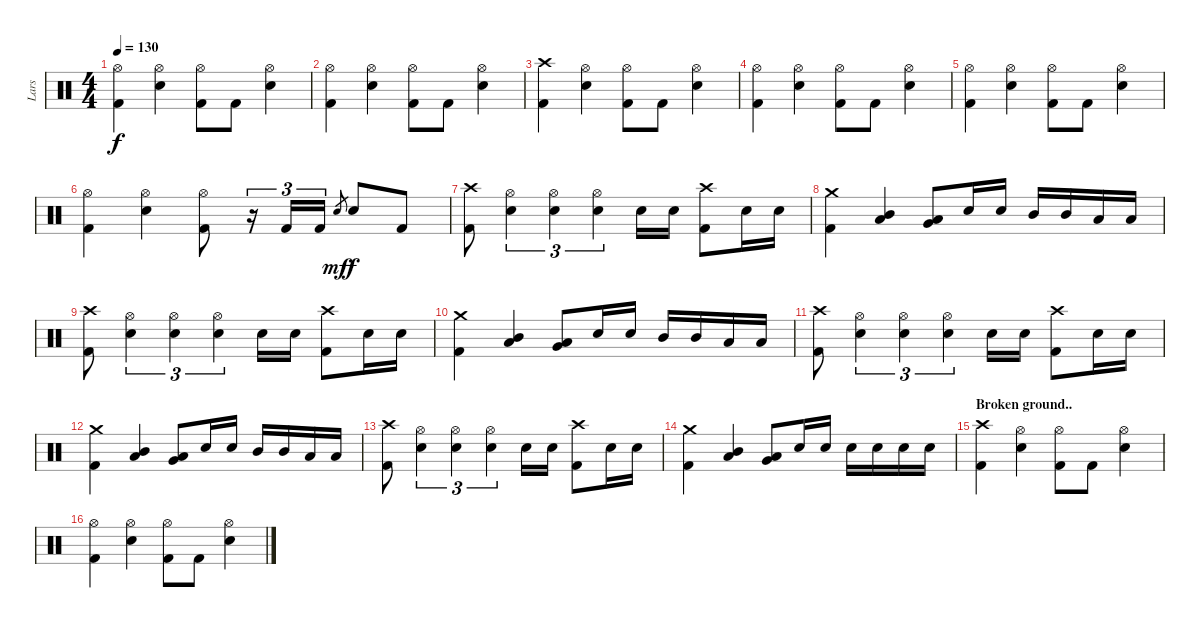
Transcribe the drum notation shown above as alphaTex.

\track ("Lars" "Lars") {instrument percussion}
\staff {score}
\articulation defaults
\ts (4 4)
\tempo 130
\clef neutral
\ks c
("Kick (hit) 2" "Hi-Hat (open)").4{dy f} ("Electric Snare (hit)" "Hi-Hat (open)").4 ("Kick (hit) 2" "Hi-Hat (open)").8 "Kick (hit) 2".8 ("Electric Snare (hit)" "Hi-Hat (open)").4 |
("Kick (hit) 2" "Hi-Hat (open)").4 ("Electric Snare (hit)" "Hi-Hat (open)").4 ("Kick (hit) 2" "Hi-Hat (open)").8 "Kick (hit) 2".8 ("Electric Snare (hit)" "Hi-Hat (open)").4 |
("Kick (hit) 2" "Crash high (hit)").4 ("Electric Snare (hit)" "Hi-Hat (open)").4 ("Kick (hit) 2" "Hi-Hat (open)").8 "Kick (hit) 2".8 ("Electric Snare (hit)" "Hi-Hat (open)").4 |
("Kick (hit) 2" "Hi-Hat (open)").4 ("Electric Snare (hit)" "Hi-Hat (open)").4 ("Kick (hit) 2" "Hi-Hat (open)").8 "Kick (hit) 2".8 ("Electric Snare (hit)" "Hi-Hat (open)").4 |
("Kick (hit) 2" "Hi-Hat (open)").4 ("Electric Snare (hit)" "Hi-Hat (open)").4 ("Kick (hit) 2" "Hi-Hat (open)").8 "Kick (hit) 2".8 ("Electric Snare (hit)" "Hi-Hat (open)").4 |
("Kick (hit) 2" "Hi-Hat (open)").4 ("Electric Snare (hit)" "Hi-Hat (open)").4 ("Kick (hit) 2" "Hi-Hat (open)").8 r.16{tu (3 2)} "Kick (hit) 2".16{tu (3 2)} "Kick (hit) 2".16{tu (3 2)} "Electric Snare (hit)".8{gr dy mf} "Electric Snare (hit)".8{dy f} "Kick (hit) 2".8 |
\section ("" "")
("Kick (hit) 2" "Crash high (hit)").8 ("Electric Snare (hit)" "Hi-Hat (open)").4{tu (3 2)} ("Electric Snare (hit)" "Hi-Hat (open)").4{tu (3 2)} ("Electric Snare (hit)" "Hi-Hat (open)").4{tu (3 2)} "Electric Snare (hit)".16 "Electric Snare (hit)".16 ("Kick (hit) 2" "Crash high (hit)").8 "Electric Snare (hit)".16 "Electric Snare (hit)".16 |
("Kick (hit) 2" "Crash medium (hit)").4 ("Mid Tom (hit)" "Low Tom (hit)").4{bu 120} ("Low Tom (hit)" "Very Low Tom (hit)").8{bu 120} "Electric Snare (hit)".16 "Electric Snare (hit)".16 "Mid Tom (hit)".16 "Mid Tom (hit)".16 "Low Tom (hit)".16 "Low Tom (hit)".16 |
("Kick (hit) 2" "Crash high (hit)").8 ("Electric Snare (hit)" "Hi-Hat (open)").4{tu (3 2)} ("Electric Snare (hit)" "Hi-Hat (open)").4{tu (3 2)} ("Electric Snare (hit)" "Hi-Hat (open)").4{tu (3 2)} "Electric Snare (hit)".16 "Electric Snare (hit)".16 ("Kick (hit) 2" "Crash high (hit)").8 "Electric Snare (hit)".16 "Electric Snare (hit)".16 |
("Kick (hit) 2" "Crash medium (hit)").4 ("Mid Tom (hit)" "Low Tom (hit)").4{bu 120} ("Low Tom (hit)" "Very Low Tom (hit)").8{bu 120} "Electric Snare (hit)".16 "Electric Snare (hit)".16 "Mid Tom (hit)".16 "Mid Tom (hit)".16 "Low Tom (hit)".16 "Low Tom (hit)".16 |
("Kick (hit) 2" "Crash high (hit)").8 ("Electric Snare (hit)" "Hi-Hat (open)").4{tu (3 2)} ("Electric Snare (hit)" "Hi-Hat (open)").4{tu (3 2)} ("Electric Snare (hit)" "Hi-Hat (open)").4{tu (3 2)} "Electric Snare (hit)".16 "Electric Snare (hit)".16 ("Kick (hit) 2" "Crash high (hit)").8 "Electric Snare (hit)".16 "Electric Snare (hit)".16 |
("Kick (hit) 2" "Crash medium (hit)").4 ("Mid Tom (hit)" "Low Tom (hit)").4{bu 120} ("Low Tom (hit)" "Very Low Tom (hit)").8{bu 120} "Electric Snare (hit)".16 "Electric Snare (hit)".16 "Mid Tom (hit)".16 "Mid Tom (hit)".16 "Low Tom (hit)".16 "Low Tom (hit)".16 |
("Kick (hit) 2" "Crash high (hit)").8 ("Electric Snare (hit)" "Hi-Hat (open)").4{tu (3 2)} ("Electric Snare (hit)" "Hi-Hat (open)").4{tu (3 2)} ("Electric Snare (hit)" "Hi-Hat (open)").4{tu (3 2)} "Electric Snare (hit)".16 "Electric Snare (hit)".16 ("Kick (hit) 2" "Crash high (hit)").8 "Electric Snare (hit)".16 "Electric Snare (hit)".16 |
("Kick (hit) 2" "Crash medium (hit)").4 ("Mid Tom (hit)" "Low Tom (hit)").4{bu 120} ("Low Tom (hit)" "Very Low Tom (hit)").8{bu 120} "Electric Snare (hit)".16 "Electric Snare (hit)".16 "Electric Snare (hit)".16 "Electric Snare (hit)".16 "Electric Snare (hit)".16 "Electric Snare (hit)".16 |
\section ("" "Broken ground..")
("Kick (hit) 2" "Crash high (hit)").4 ("Electric Snare (hit)" "Hi-Hat (open)").4 ("Kick (hit) 2" "Hi-Hat (open)").8 "Kick (hit) 2".8 ("Electric Snare (hit)" "Hi-Hat (open)").4 |
("Kick (hit) 2" "Hi-Hat (open)").4 ("Electric Snare (hit)" "Hi-Hat (open)").4 ("Kick (hit) 2" "Hi-Hat (open)").8 "Kick (hit) 2".8 ("Electric Snare (hit)" "Hi-Hat (open)").4
